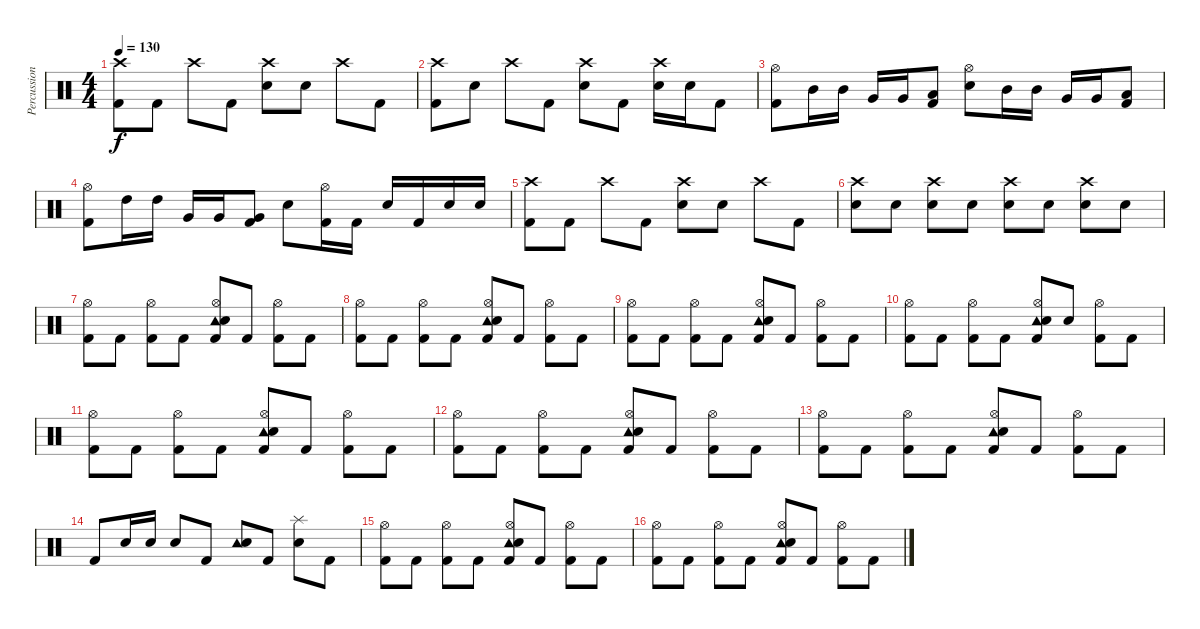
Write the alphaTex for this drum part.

\track ("Percussion" "Percussion") {instrument percussion}
\staff {score}
\articulation defaults
\ts (4 4)
\tempo 130
\clef neutral
\ks c
("Crash high (hit)" "Kick (hit) 2").8{dy f} "Kick (hit) 2".8 "Crash high (hit)".8 "Kick (hit) 2".8 ("Crash high (hit)" "Snare (hit) 2").8 "Snare (hit) 2".8 "Crash high (hit)".8 "Kick (hit) 2".8 |
("Crash high (hit)" "Kick (hit) 2").8 "Snare (hit) 2".8 "Crash high (hit)".8 "Kick (hit) 2".8 ("Crash high (hit)" "Snare (hit) 2").8 "Kick (hit) 2".8 ("Crash high (hit)" "Snare (hit) 2").16 "Snare (hit) 2".16 "Kick (hit) 2".8 |
("Hi-Hat (open)" "Kick (hit) 2").8 "Mid Tom (hit)".16 "Mid Tom (hit)".16 "Very Low Tom (hit)".16 "Very Low Tom (hit)".16 ("Low Floor Tom (hit)" "Kick (hit) 2").8 ("Hi-Hat (open)" "Snare (hit) 2").8 "Mid Tom (hit)".16 "Mid Tom (hit)".16 "Very Low Tom (hit)".16 "Very Low Tom (hit)".16 ("Low Floor Tom (hit)" "Kick (hit) 2").8 |
("Hi-Hat (open)" "Kick (hit) 2").8 "High Tom (hit)".16 "High Tom (hit)".16 "Very Low Tom (hit)".16 "Very Low Tom (hit)".16 ("Very Low Tom (hit)" "Kick (hit) 2").8 "Snare (hit) 2".8 ("Hi-Hat (open)" "Kick (hit) 2").16 "Kick (hit) 2".16 "Snare (hit) 2".16 "Kick (hit) 2".16 "Snare (hit) 2".16 "Snare (hit) 2".16 |
("Crash high (hit)" "Kick (hit) 2").8 "Kick (hit) 2".8 "Crash high (hit)".8 "Kick (hit) 2".8 ("Crash high (hit)" "Snare (hit) 2").8 "Snare (hit) 2".8 "Crash high (hit)".8 "Kick (hit) 2".8 |
("Crash high (hit)" "Snare (hit) 2").8 "Snare (hit) 2".8 ("Crash high (hit)" "Snare (hit) 2").8 "Snare (hit) 2".8 ("Crash high (hit)" "Snare (hit) 2").8 "Snare (hit) 2".8 ("Crash high (hit)" "Snare (hit) 2").8 "Snare (hit) 2".8 |
("Hi-Hat (open)" "Kick (hit) 2").8 "Kick (hit) 2".8 ("Hi-Hat (open)" "Kick (hit) 2").8 "Kick (hit) 2".8 ("Hi-Hat (open)" "Tambourine (hit)" "Snare (hit) 2" "Kick (hit) 2").8 "Kick (hit) 2".8 ("Hi-Hat (open)" "Kick (hit) 2").8 "Kick (hit) 2".8 |
("Hi-Hat (open)" "Kick (hit) 2").8 "Kick (hit) 2".8 ("Hi-Hat (open)" "Kick (hit) 2").8 "Kick (hit) 2".8 ("Hi-Hat (open)" "Tambourine (hit)" "Snare (hit) 2" "Kick (hit) 2").8 "Kick (hit) 2".8 ("Hi-Hat (open)" "Kick (hit) 2").8 "Kick (hit) 2".8 |
("Hi-Hat (open)" "Kick (hit) 2").8 "Kick (hit) 2".8 ("Hi-Hat (open)" "Kick (hit) 2").8 "Kick (hit) 2".8 ("Hi-Hat (open)" "Tambourine (hit)" "Snare (hit) 2" "Kick (hit) 2").8 "Kick (hit) 2".8 ("Hi-Hat (open)" "Kick (hit) 2").8 "Kick (hit) 2".8 |
("Hi-Hat (open)" "Kick (hit) 2").8 "Kick (hit) 2".8 ("Hi-Hat (open)" "Kick (hit) 2").8 "Kick (hit) 2".8 ("Hi-Hat (open)" "Tambourine (hit)" "Snare (hit) 2" "Kick (hit) 2").8 "Snare (hit) 2".8 ("Hi-Hat (open)" "Kick (hit) 2").8 "Kick (hit) 2".8 |
("Hi-Hat (open)" "Kick (hit) 2").8 "Kick (hit) 2".8 ("Hi-Hat (open)" "Kick (hit) 2").8 "Kick (hit) 2".8 ("Hi-Hat (open)" "Tambourine (hit)" "Snare (hit) 2" "Kick (hit) 2").8 "Kick (hit) 2".8 ("Hi-Hat (open)" "Kick (hit) 2").8 "Kick (hit) 2".8 |
("Hi-Hat (open)" "Kick (hit) 2").8 "Kick (hit) 2".8 ("Hi-Hat (open)" "Kick (hit) 2").8 "Kick (hit) 2".8 ("Hi-Hat (open)" "Tambourine (hit)" "Snare (hit) 2" "Kick (hit) 2").8 "Kick (hit) 2".8 ("Hi-Hat (open)" "Kick (hit) 2").8 "Kick (hit) 2".8 |
("Hi-Hat (open)" "Kick (hit) 2").8 "Kick (hit) 2".8 ("Hi-Hat (open)" "Kick (hit) 2").8 "Kick (hit) 2".8 ("Hi-Hat (open)" "Tambourine (hit)" "Snare (hit) 2" "Kick (hit) 2").8 "Kick (hit) 2".8 ("Hi-Hat (open)" "Kick (hit) 2").8 "Kick (hit) 2".8 |
"Kick (hit) 2".8 "Snare (hit) 2".16 "Snare (hit) 2".16 "Snare (hit) 2".8 "Kick (hit) 2".8 ("Tambourine (hit)" "Snare (hit) 2").8 "Kick (hit) 2".8 ("Splash (hit)" "Snare (hit) 2").8 "Kick (hit) 2".8 |
("Hi-Hat (open)" "Kick (hit) 2").8 "Kick (hit) 2".8 ("Hi-Hat (open)" "Kick (hit) 2").8 "Kick (hit) 2".8 ("Hi-Hat (open)" "Tambourine (hit)" "Snare (hit) 2" "Kick (hit) 2").8 "Kick (hit) 2".8 ("Hi-Hat (open)" "Kick (hit) 2").8 "Kick (hit) 2".8 |
("Hi-Hat (open)" "Kick (hit) 2").8 "Kick (hit) 2".8 ("Hi-Hat (open)" "Kick (hit) 2").8 "Kick (hit) 2".8 ("Hi-Hat (open)" "Tambourine (hit)" "Snare (hit) 2" "Kick (hit) 2").8 "Kick (hit) 2".8 ("Hi-Hat (open)" "Kick (hit) 2").8 "Kick (hit) 2".8
